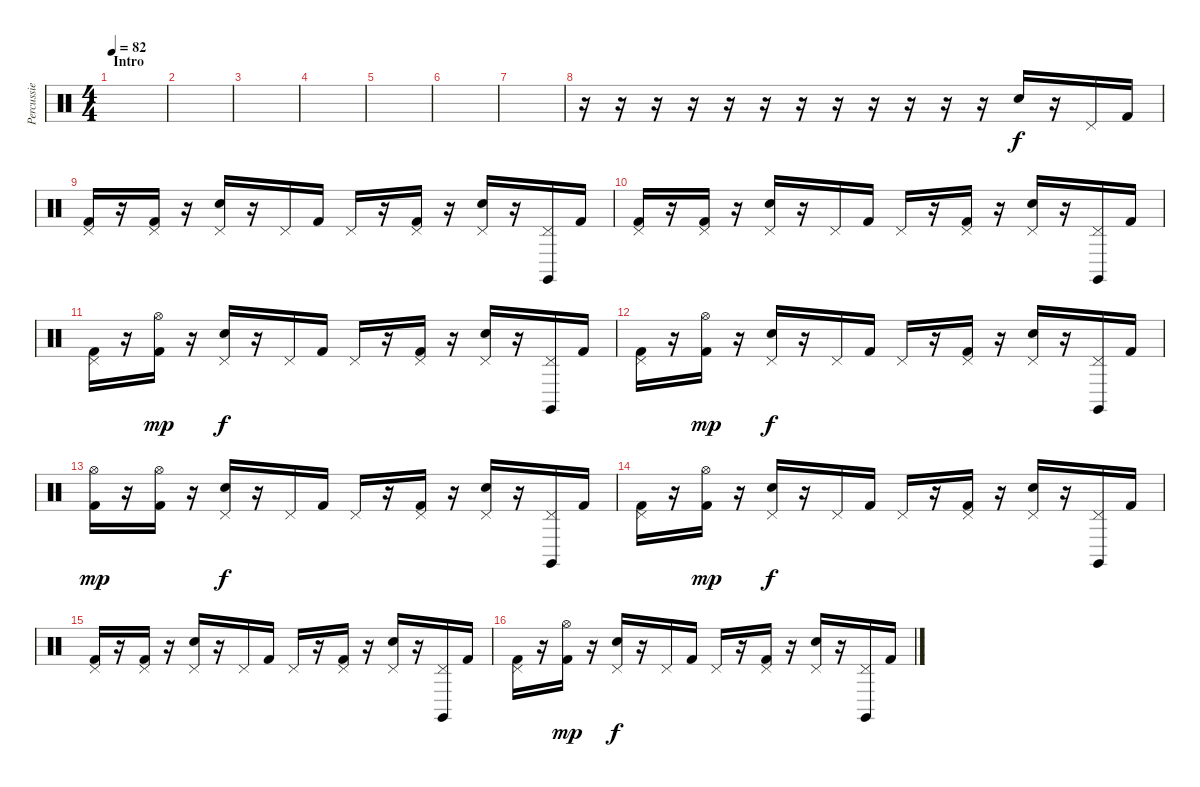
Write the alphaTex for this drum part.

\track ("Percussie" "Percussie") {instrument percussion}
\staff {score}
\articulation defaults
\ts (4 4)
\section ("" "Intro")
\tempo 82
\clef neutral
\ks c
|
|
|
|
|
|
|
r.16 r.16 r.16 r.16 r.16 r.16 r.16 r.16 r.16 r.16 r.16 r.16 "Electric Snare (hit)".16 r.16 "Pedal Hi-Hat (hit)".16 "Kick (hit) 2".16 |
("Pedal Hi-Hat (hit)" "Kick (hit) 2").16 r.16 ("Pedal Hi-Hat (hit)" "Kick (hit) 2").16 r.16 ("Pedal Hi-Hat (hit)" "Electric Snare (hit)").16 r.16 "Pedal Hi-Hat (hit)".16 "Kick (hit) 2".16 "Pedal Hi-Hat (hit)".16 r.16 ("Pedal Hi-Hat (hit)" "Kick (hit) 2").16 r.16 ("Pedal Hi-Hat (hit)" "Electric Snare (hit)").16 r.16 ("Pedal Hi-Hat (hit)" "Claves (hit)").16 "Kick (hit) 2".16 |
("Pedal Hi-Hat (hit)" "Kick (hit) 2").16 r.16 ("Pedal Hi-Hat (hit)" "Kick (hit) 2").16 r.16 ("Pedal Hi-Hat (hit)" "Electric Snare (hit)").16 r.16 "Pedal Hi-Hat (hit)".16 "Kick (hit) 2".16 "Pedal Hi-Hat (hit)".16 r.16 ("Pedal Hi-Hat (hit)" "Kick (hit) 2").16 r.16 ("Pedal Hi-Hat (hit)" "Electric Snare (hit)").16 r.16 ("Pedal Hi-Hat (hit)" "Claves (hit)").16 "Kick (hit) 2".16 |
("Pedal Hi-Hat (hit)" "Kick (hit) 2").16 r.16 ("Hi-Hat (open)" "Kick (hit) 2").16{dy mp} r.16 ("Pedal Hi-Hat (hit)" "Electric Snare (hit)").16{dy f} r.16 "Pedal Hi-Hat (hit)".16 "Kick (hit) 2".16 "Pedal Hi-Hat (hit)".16 r.16 ("Pedal Hi-Hat (hit)" "Kick (hit) 2").16 r.16 ("Pedal Hi-Hat (hit)" "Electric Snare (hit)").16 r.16 ("Pedal Hi-Hat (hit)" "Claves (hit)").16 "Kick (hit) 2".16 |
("Pedal Hi-Hat (hit)" "Kick (hit) 2").16 r.16 ("Hi-Hat (open)" "Kick (hit) 2").16{dy mp} r.16 ("Pedal Hi-Hat (hit)" "Electric Snare (hit)").16{dy f} r.16 "Pedal Hi-Hat (hit)".16 "Kick (hit) 2".16 "Pedal Hi-Hat (hit)".16 r.16 ("Pedal Hi-Hat (hit)" "Kick (hit) 2").16 r.16 ("Pedal Hi-Hat (hit)" "Electric Snare (hit)").16 r.16 ("Pedal Hi-Hat (hit)" "Claves (hit)").16 "Kick (hit) 2".16 |
("Hi-Hat (open)" "Kick (hit) 2").16{dy mp} r.16 ("Hi-Hat (open)" "Kick (hit) 2").16 r.16 ("Pedal Hi-Hat (hit)" "Electric Snare (hit)").16{dy f} r.16 "Pedal Hi-Hat (hit)".16 "Kick (hit) 2".16 "Pedal Hi-Hat (hit)".16 r.16 ("Pedal Hi-Hat (hit)" "Kick (hit) 2").16 r.16 ("Pedal Hi-Hat (hit)" "Electric Snare (hit)").16 r.16 ("Pedal Hi-Hat (hit)" "Claves (hit)").16 "Kick (hit) 2".16 |
("Pedal Hi-Hat (hit)" "Kick (hit) 2").16 r.16 ("Hi-Hat (open)" "Kick (hit) 2").16{dy mp} r.16 ("Pedal Hi-Hat (hit)" "Electric Snare (hit)").16{dy f} r.16 "Pedal Hi-Hat (hit)".16 "Kick (hit) 2".16 "Pedal Hi-Hat (hit)".16 r.16 ("Pedal Hi-Hat (hit)" "Kick (hit) 2").16 r.16 ("Pedal Hi-Hat (hit)" "Electric Snare (hit)").16 r.16 ("Pedal Hi-Hat (hit)" "Claves (hit)").16 "Kick (hit) 2".16 |
("Pedal Hi-Hat (hit)" "Kick (hit) 2").16 r.16 ("Pedal Hi-Hat (hit)" "Kick (hit) 2").16 r.16 ("Pedal Hi-Hat (hit)" "Electric Snare (hit)").16 r.16 "Pedal Hi-Hat (hit)".16 "Kick (hit) 2".16 "Pedal Hi-Hat (hit)".16 r.16 ("Pedal Hi-Hat (hit)" "Kick (hit) 2").16 r.16 ("Pedal Hi-Hat (hit)" "Electric Snare (hit)").16 r.16 ("Pedal Hi-Hat (hit)" "Claves (hit)").16 "Kick (hit) 2".16 |
("Pedal Hi-Hat (hit)" "Kick (hit) 2").16 r.16 ("Hi-Hat (open)" "Kick (hit) 2").16{dy mp} r.16 ("Pedal Hi-Hat (hit)" "Electric Snare (hit)").16{dy f} r.16 "Pedal Hi-Hat (hit)".16 "Kick (hit) 2".16 "Pedal Hi-Hat (hit)".16 r.16 ("Pedal Hi-Hat (hit)" "Kick (hit) 2").16 r.16 ("Pedal Hi-Hat (hit)" "Electric Snare (hit)").16 r.16 ("Pedal Hi-Hat (hit)" "Claves (hit)").16 "Kick (hit) 2".16
